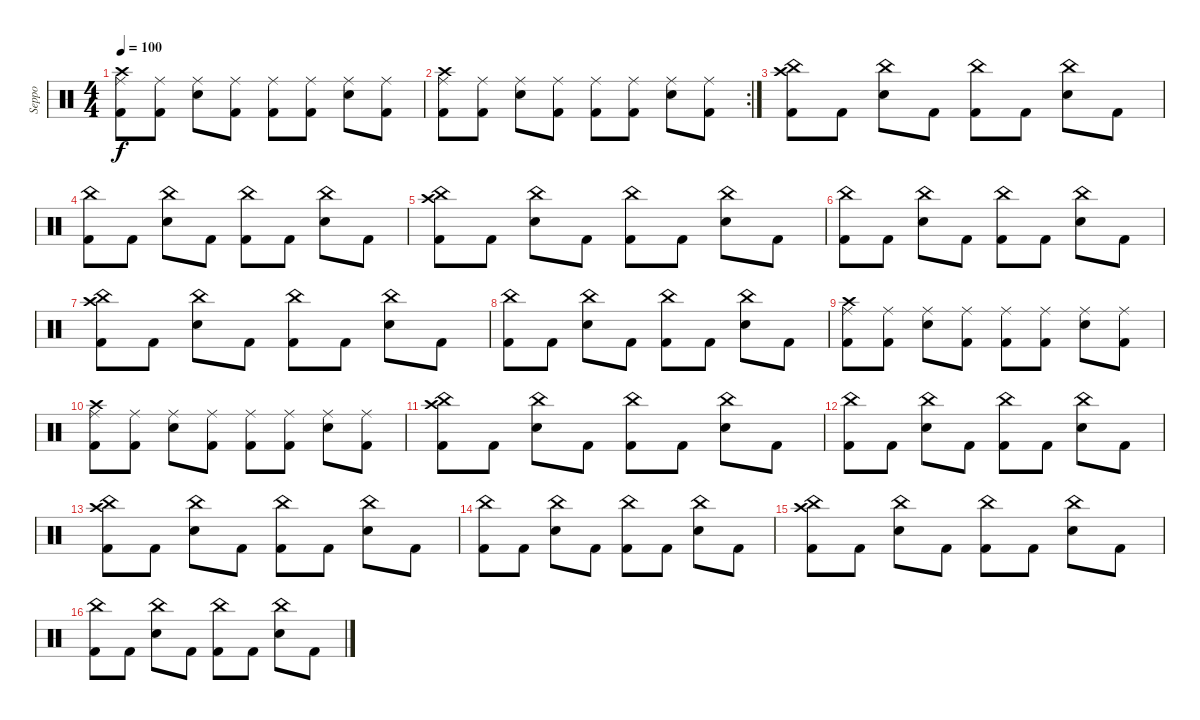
\track ("Seppo" "Seppo") {instrument percussion}
\staff {score}
\articulation defaults
\ts (4 4)
\tempo 100
\clef neutral
\ks c
("Crash high (hit)" "Ride (middle)" "Kick (hit) 2").8{dy f} ("Ride (middle)" "Kick (hit) 2").8 ("Ride (middle)" "Electric Snare (hit)").8 ("Ride (middle)" "Kick (hit) 2").8 ("Ride (middle)" "Kick (hit) 2").8 ("Ride (middle)" "Kick (hit) 2").8 ("Ride (middle)" "Electric Snare (hit)").8 ("Ride (middle)" "Kick (hit) 2").8 |
\rc 2
("Crash high (hit)" "Ride (middle)" "Kick (hit) 2").8 ("Ride (middle)" "Kick (hit) 2").8 ("Ride (middle)" "Electric Snare (hit)").8 ("Ride (middle)" "Kick (hit) 2").8 ("Ride (middle)" "Kick (hit) 2").8 ("Ride (middle)" "Kick (hit) 2").8 ("Ride (middle)" "Electric Snare (hit)").8 ("Ride (middle)" "Kick (hit) 2").8 |
("Crash high (hit)" "China (hit)" "Kick (hit) 2").8 "Kick (hit) 2".8 ("China (hit)" "Electric Snare (hit)").8 "Kick (hit) 2".8 ("China (hit)" "Kick (hit) 2").8 "Kick (hit) 2".8 ("China (hit)" "Electric Snare (hit)").8 "Kick (hit) 2".8 |
("China (hit)" "Kick (hit) 2").8 "Kick (hit) 2".8 ("China (hit)" "Electric Snare (hit)").8 "Kick (hit) 2".8 ("China (hit)" "Kick (hit) 2").8 "Kick (hit) 2".8 ("China (hit)" "Electric Snare (hit)").8 "Kick (hit) 2".8 |
("Crash high (hit)" "China (hit)" "Kick (hit) 2").8 "Kick (hit) 2".8 ("China (hit)" "Electric Snare (hit)").8 "Kick (hit) 2".8 ("China (hit)" "Kick (hit) 2").8 "Kick (hit) 2".8 ("China (hit)" "Electric Snare (hit)").8 "Kick (hit) 2".8 |
("China (hit)" "Kick (hit) 2").8 "Kick (hit) 2".8 ("China (hit)" "Electric Snare (hit)").8 "Kick (hit) 2".8 ("China (hit)" "Kick (hit) 2").8 "Kick (hit) 2".8 ("China (hit)" "Electric Snare (hit)").8 "Kick (hit) 2".8 |
("Crash high (hit)" "China (hit)" "Kick (hit) 2").8 "Kick (hit) 2".8 ("China (hit)" "Electric Snare (hit)").8 "Kick (hit) 2".8 ("China (hit)" "Kick (hit) 2").8 "Kick (hit) 2".8 ("China (hit)" "Electric Snare (hit)").8 "Kick (hit) 2".8 |
("China (hit)" "Kick (hit) 2").8 "Kick (hit) 2".8 ("China (hit)" "Electric Snare (hit)").8 "Kick (hit) 2".8 ("China (hit)" "Kick (hit) 2").8 "Kick (hit) 2".8 ("China (hit)" "Electric Snare (hit)").8 "Kick (hit) 2".8 |
("Crash high (hit)" "Ride (middle)" "Kick (hit) 2").8 ("Ride (middle)" "Kick (hit) 2").8 ("Ride (middle)" "Electric Snare (hit)").8 ("Ride (middle)" "Kick (hit) 2").8 ("Ride (middle)" "Kick (hit) 2").8 ("Ride (middle)" "Kick (hit) 2").8 ("Ride (middle)" "Electric Snare (hit)").8 ("Ride (middle)" "Kick (hit) 2").8 |
("Crash high (hit)" "Ride (middle)" "Kick (hit) 2").8 ("Ride (middle)" "Kick (hit) 2").8 ("Ride (middle)" "Electric Snare (hit)").8 ("Ride (middle)" "Kick (hit) 2").8 ("Ride (middle)" "Kick (hit) 2").8 ("Ride (middle)" "Kick (hit) 2").8 ("Ride (middle)" "Electric Snare (hit)").8 ("Ride (middle)" "Kick (hit) 2").8 |
("Crash high (hit)" "China (hit)" "Kick (hit) 2").8 "Kick (hit) 2".8 ("China (hit)" "Electric Snare (hit)").8 "Kick (hit) 2".8 ("China (hit)" "Kick (hit) 2").8 "Kick (hit) 2".8 ("China (hit)" "Electric Snare (hit)").8 "Kick (hit) 2".8 |
("China (hit)" "Kick (hit) 2").8 "Kick (hit) 2".8 ("China (hit)" "Electric Snare (hit)").8 "Kick (hit) 2".8 ("China (hit)" "Kick (hit) 2").8 "Kick (hit) 2".8 ("China (hit)" "Electric Snare (hit)").8 "Kick (hit) 2".8 |
("Crash high (hit)" "China (hit)" "Kick (hit) 2").8 "Kick (hit) 2".8 ("China (hit)" "Electric Snare (hit)").8 "Kick (hit) 2".8 ("China (hit)" "Kick (hit) 2").8 "Kick (hit) 2".8 ("China (hit)" "Electric Snare (hit)").8 "Kick (hit) 2".8 |
("China (hit)" "Kick (hit) 2").8 "Kick (hit) 2".8 ("China (hit)" "Electric Snare (hit)").8 "Kick (hit) 2".8 ("China (hit)" "Kick (hit) 2").8 "Kick (hit) 2".8 ("China (hit)" "Electric Snare (hit)").8 "Kick (hit) 2".8 |
("Crash high (hit)" "China (hit)" "Kick (hit) 2").8 "Kick (hit) 2".8 ("China (hit)" "Electric Snare (hit)").8 "Kick (hit) 2".8 ("China (hit)" "Kick (hit) 2").8 "Kick (hit) 2".8 ("China (hit)" "Electric Snare (hit)").8 "Kick (hit) 2".8 |
("China (hit)" "Kick (hit) 2").8 "Kick (hit) 2".8 ("China (hit)" "Electric Snare (hit)").8 "Kick (hit) 2".8 ("China (hit)" "Kick (hit) 2").8 "Kick (hit) 2".8 ("China (hit)" "Electric Snare (hit)").8 "Kick (hit) 2".8
